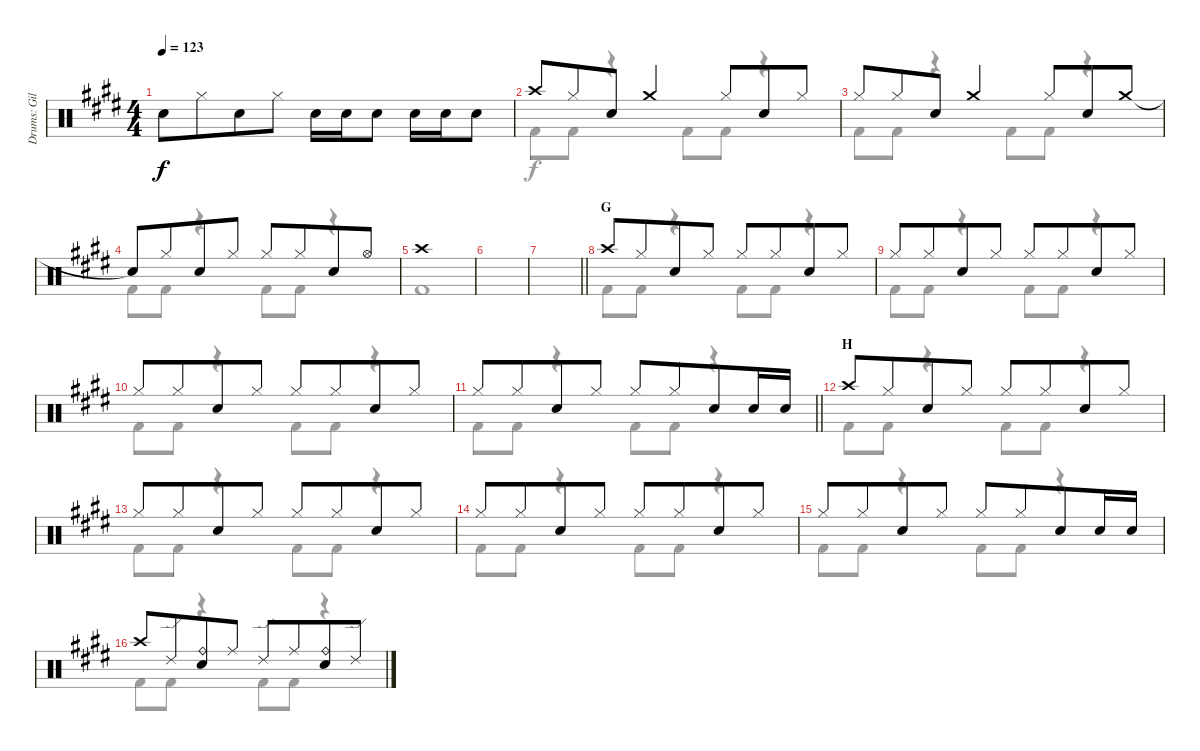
\track ("Drums: Gil" "Drums: Gil") {instrument percussion}
\staff {score}
\articulation defaults
\voice
\ts (4 4)
\tempo 123
\clef neutral
\ks e "Snare (hit)"{t}.8{dy f} "Hi-Hat (closed)".8{beam merge} "Snare (hit) 2".8 "Hi-Hat (closed)".8 "Snare (hit) 2".16 "Snare (hit) 2".16{beam merge} "Snare (hit) 2".8 "Snare (hit) 2".16 "Snare (hit) 2".16 "Snare (hit) 2".8
|
"Crash high (hit)".8 "Hi-Hat (closed)".8{beam merge} "Snare (hit) 2".8 "Crash medium (hit)".4 "Hi-Hat (closed)".8{beam merge} "Snare (hit) 2".8 "Hi-Hat (closed)".8 |
"Hi-Hat (closed)".8 "Hi-Hat (closed)".8{beam merge} "Snare (hit) 2".8 "Crash medium (hit)".4 "Hi-Hat (closed)".8{beam merge} "Snare (hit) 2".8 "Crash medium (hit)".8 |
"Snare (hit)"{t}.8 "Hi-Hat (closed)".8{beam merge} "Snare (hit) 2".8 "Hi-Hat (closed)".8 "Hi-Hat (closed)".8 "Hi-Hat (closed)".8{beam merge} "Snare (hit) 2".8 "Hi-Hat (open)".8 |
"Crash high (hit)".1 |
|
\barLineRight lightlight
|
\section ("" "G")
"Crash high (hit)".8 "Hi-Hat (closed)".8{beam merge} "Snare (hit) 2".8 "Hi-Hat (closed)".8 "Hi-Hat (closed)".8 "Hi-Hat (closed)".8{beam merge} "Snare (hit) 2".8 "Hi-Hat (closed)".8 |
"Hi-Hat (closed)".8 "Hi-Hat (closed)".8{beam merge} "Snare (hit) 2".8 "Hi-Hat (closed)".8 "Hi-Hat (closed)".8 "Hi-Hat (closed)".8{beam merge} "Snare (hit) 2".8 "Hi-Hat (closed)".8 |
"Hi-Hat (closed)".8 "Hi-Hat (closed)".8{beam merge} "Snare (hit) 2".8 "Hi-Hat (closed)".8 "Hi-Hat (closed)".8 "Hi-Hat (closed)".8{beam merge} "Snare (hit) 2".8 "Hi-Hat (closed)".8 |
\barLineRight lightlight "Hi-Hat (closed)".8 "Hi-Hat (closed)".8{beam merge} "Snare (hit) 2".8 "Hi-Hat (closed)".8 "Hi-Hat (closed)".8 "Hi-Hat (closed)".8{beam merge} "Snare (hit) 2".8 "Snare (hit) 2".16 "Snare (hit) 2".16
|
\section ("" "H")
"Crash high (hit)".8 "Hi-Hat (closed)".8{beam merge} "Snare (hit) 2".8 "Hi-Hat (closed)".8 "Hi-Hat (closed)".8 "Hi-Hat (closed)".8{beam merge} "Snare (hit) 2".8 "Hi-Hat (closed)".8 |
"Hi-Hat (closed)".8 "Hi-Hat (closed)".8{beam merge} "Snare (hit) 2".8 "Hi-Hat (closed)".8 "Hi-Hat (closed)".8 "Hi-Hat (closed)".8{beam merge} "Snare (hit) 2".8 "Hi-Hat (closed)".8 |
"Hi-Hat (closed)".8 "Hi-Hat (closed)".8{beam merge} "Snare (hit) 2".8 "Hi-Hat (closed)".8 "Hi-Hat (closed)".8 "Hi-Hat (closed)".8{beam merge} "Snare (hit) 2".8 "Hi-Hat (closed)".8 |
"Hi-Hat (closed)".8 "Hi-Hat (closed)".8{beam merge} "Snare (hit) 2".8 "Hi-Hat (closed)".8 "Hi-Hat (closed)".8 "Hi-Hat (closed)".8{beam merge} "Snare (hit) 2".8 "Snare (hit) 2".16 "Snare (hit) 2".16 |
"Crash high (hit)".8 "Ride (edge) 2".8{beam merge} ("Ride (bell)" "Snare (hit) 2").8 "Ride (middle)".8 "Ride (edge) 2".8 "Ride (middle)".8{beam merge} ("Ride (bell)" "Snare (hit) 2").8 "Ride (edge) 2".8
\voice
\clef neutral
\ottava regular
\simile none
\ks e
|
"Kick (hit) 2".8 "Kick (hit) 2".8 r.4 "Kick (hit) 2".8 "Kick (hit) 2".8 r.4 |
"Kick (hit) 2".8 "Kick (hit) 2".8 r.4 "Kick (hit) 2".8 "Kick (hit) 2".8 r.4 |
"Kick (hit) 2".8 "Kick (hit) 2".8 r.4 "Kick (hit) 2".8 "Kick (hit) 2".8 r.4 |
"Kick (hit) 2".1 |
|
\barLineRight lightlight
|
"Kick (hit) 2".8 "Kick (hit) 2".8 r.4 "Kick (hit) 2".8 "Kick (hit) 2".8 r.4 |
"Kick (hit) 2".8 "Kick (hit) 2".8 r.4 "Kick (hit) 2".8 "Kick (hit) 2".8 r.4 |
"Kick (hit) 2".8 "Kick (hit) 2".8 r.4 "Kick (hit) 2".8 "Kick (hit) 2".8 r.4 |
\barLineRight lightlight "Kick (hit) 2".8 "Kick (hit) 2".8
r.4 "Kick (hit) 2".8 "Kick (hit) 2".8 r.4 |
"Kick (hit) 2".8 "Kick (hit) 2".8 r.4 "Kick (hit) 2".8 "Kick (hit) 2".8 r.4 |
"Kick (hit) 2".8 "Kick (hit) 2".8 r.4 "Kick (hit) 2".8 "Kick (hit) 2".8 r.4 |
"Kick (hit) 2".8 "Kick (hit) 2".8 r.4 "Kick (hit) 2".8 "Kick (hit) 2".8 r.4 |
"Kick (hit) 2".8 "Kick (hit) 2".8 r.4 "Kick (hit) 2".8 "Kick (hit) 2".8 r.4 |
"Kick (hit) 2".8 "Kick (hit) 2".8 r.4 "Kick (hit) 2".8 "Kick (hit) 2".8 r.4
